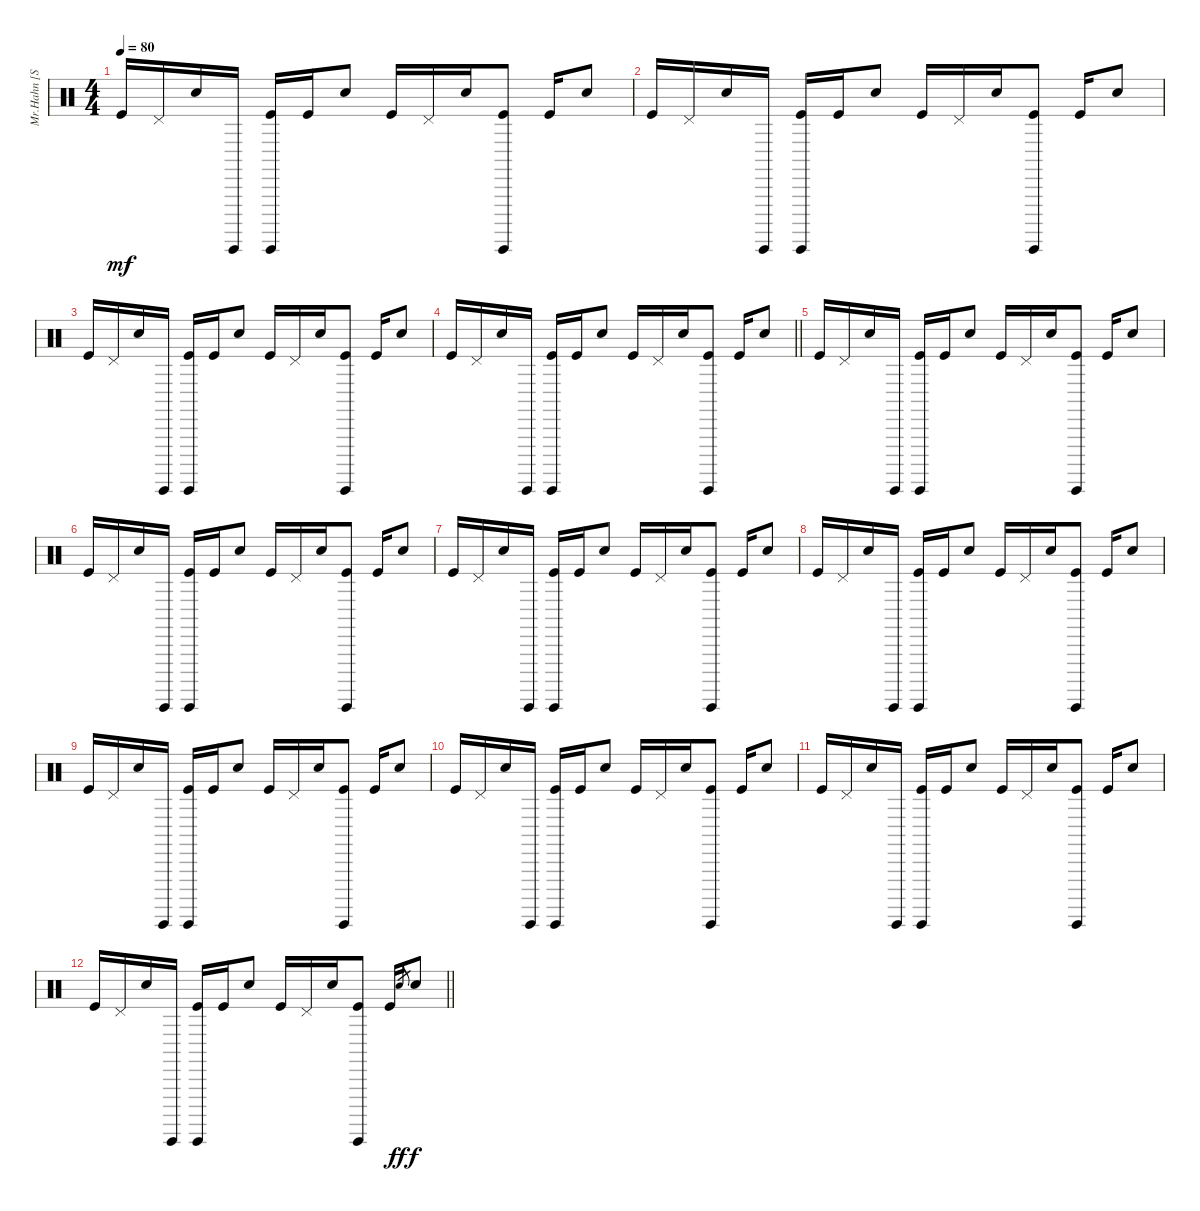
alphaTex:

\track ("Mr.Hahn [Sampler 4 Digital Drums]" "Mr.Hahn [S") {instrument percussion}
\staff {score}
\articulation defaults
\ts (4 4)
\tempo 80
\clef neutral
\ks c "Kick (hit)".16{dy mf} "Pedal Hi-Hat (hit)".16 "Snare (hit) 2".16 "Guiro (hit)".16
("Guiro (hit)" "Kick (hit)").16 "Kick (hit)".16 "Snare (hit) 2".8 "Kick (hit)".16 "Pedal Hi-Hat (hit)".16 "Snare (hit) 2".16 ("Guiro (hit)" "Kick (hit)").8 "Kick (hit)".16 "Snare (hit) 2".8 |
"Kick (hit)".16 "Pedal Hi-Hat (hit)".16 "Snare (hit) 2".16 "Guiro (hit)".16 ("Guiro (hit)" "Kick (hit)").16 "Kick (hit)".16 "Snare (hit) 2".8 "Kick (hit)".16 "Pedal Hi-Hat (hit)".16 "Snare (hit) 2".16 ("Guiro (hit)" "Kick (hit)").8 "Kick (hit)".16 "Snare (hit) 2".8 |
"Kick (hit)".16 "Pedal Hi-Hat (hit)".16 "Snare (hit) 2".16 "Guiro (hit)".16 ("Guiro (hit)" "Kick (hit)").16 "Kick (hit)".16 "Snare (hit) 2".8 "Kick (hit)".16 "Pedal Hi-Hat (hit)".16 "Snare (hit) 2".16 ("Guiro (hit)" "Kick (hit)").8 "Kick (hit)".16 "Snare (hit) 2".8 |
\barLineRight lightlight "Kick (hit)".16 "Pedal Hi-Hat (hit)".16 "Snare (hit) 2".16 "Guiro (hit)".16
("Guiro (hit)" "Kick (hit)").16 "Kick (hit)".16 "Snare (hit) 2".8 "Kick (hit)".16 "Pedal Hi-Hat (hit)".16 "Snare (hit) 2".16 ("Guiro (hit)" "Kick (hit)").8 "Kick (hit)".16 "Snare (hit) 2".8 |
"Kick (hit)".16 "Pedal Hi-Hat (hit)".16 "Snare (hit) 2".16 "Guiro (hit)".16 ("Guiro (hit)" "Kick (hit)").16 "Kick (hit)".16 "Snare (hit) 2".8 "Kick (hit)".16 "Pedal Hi-Hat (hit)".16 "Snare (hit) 2".16 ("Guiro (hit)" "Kick (hit)").8 "Kick (hit)".16 "Snare (hit) 2".8 |
"Kick (hit)".16 "Pedal Hi-Hat (hit)".16 "Snare (hit) 2".16 "Guiro (hit)".16 ("Guiro (hit)" "Kick (hit)").16 "Kick (hit)".16 "Snare (hit) 2".8 "Kick (hit)".16 "Pedal Hi-Hat (hit)".16 "Snare (hit) 2".16 ("Guiro (hit)" "Kick (hit)").8 "Kick (hit)".16 "Snare (hit) 2".8 |
"Kick (hit)".16 "Pedal Hi-Hat (hit)".16 "Snare (hit) 2".16 "Guiro (hit)".16 ("Guiro (hit)" "Kick (hit)").16 "Kick (hit)".16 "Snare (hit) 2".8 "Kick (hit)".16 "Pedal Hi-Hat (hit)".16 "Snare (hit) 2".16 ("Guiro (hit)" "Kick (hit)").8 "Kick (hit)".16 "Snare (hit) 2".8 |
"Kick (hit)".16 "Pedal Hi-Hat (hit)".16 "Snare (hit) 2".16 "Guiro (hit)".16 ("Guiro (hit)" "Kick (hit)").16 "Kick (hit)".16 "Snare (hit) 2".8 "Kick (hit)".16 "Pedal Hi-Hat (hit)".16 "Snare (hit) 2".16 ("Guiro (hit)" "Kick (hit)").8 "Kick (hit)".16 "Snare (hit) 2".8 |
"Kick (hit)".16 "Pedal Hi-Hat (hit)".16 "Snare (hit) 2".16 "Guiro (hit)".16 ("Guiro (hit)" "Kick (hit)").16 "Kick (hit)".16 "Snare (hit) 2".8 "Kick (hit)".16 "Pedal Hi-Hat (hit)".16 "Snare (hit) 2".16 ("Guiro (hit)" "Kick (hit)").8 "Kick (hit)".16 "Snare (hit) 2".8 |
"Kick (hit)".16 "Pedal Hi-Hat (hit)".16 "Snare (hit) 2".16 "Guiro (hit)".16 ("Guiro (hit)" "Kick (hit)").16 "Kick (hit)".16 "Snare (hit) 2".8 "Kick (hit)".16 "Pedal Hi-Hat (hit)".16 "Snare (hit) 2".16 ("Guiro (hit)" "Kick (hit)").8 "Kick (hit)".16 "Snare (hit) 2".8 |
"Kick (hit)".16 "Pedal Hi-Hat (hit)".16 "Snare (hit) 2".16 "Guiro (hit)".16 ("Guiro (hit)" "Kick (hit)").16 "Kick (hit)".16 "Snare (hit) 2".8 "Kick (hit)".16 "Pedal Hi-Hat (hit)".16 "Snare (hit) 2".16 ("Guiro (hit)" "Kick (hit)").8 "Kick (hit)".16 "Snare (hit) 2".8 |
\barLineRight lightlight "Kick (hit)".16 "Pedal Hi-Hat (hit)".16 "Snare (hit) 2".16 "Guiro (hit)".16
("Guiro (hit)" "Kick (hit)").16 "Kick (hit)".16 "Snare (hit) 2".8 "Kick (hit)".16 "Pedal Hi-Hat (hit)".16 "Snare (hit) 2".16 ("Guiro (hit)" "Kick (hit)").8 "Kick (hit)".16 "Electric Snare (hit)"{h}.8{gr dy ff} "Electric Snare (hit)".8{dy f}
